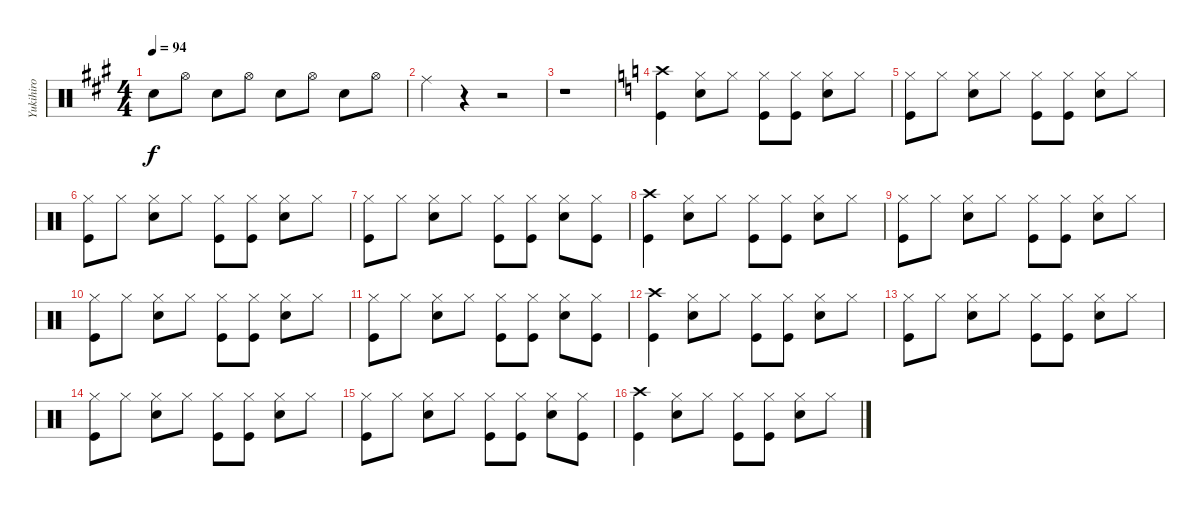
\track ("Yukihiro" "Yukihiro") {instrument percussion}
\staff {score}
\articulation defaults
\ts (4 4)
\tempo 94
\clef neutral
\ks a "Snare (hit) 2".8{dy f} "Hi-Hat (open)".8 "Snare (hit) 2".8 "Hi-Hat (open)".8 "Snare (hit) 2".8 "Hi-Hat (open)".8 "Snare (hit) 2".8 "Hi-Hat (open)".8
|
"Ride (middle)".4 r.4 r.2 |
r.1 |
\ks c
("Crash high (hit)" "Kick (hit)").4 ("Hi-Hat (closed)" "Snare (hit) 2").8 "Hi-Hat (closed)".8 ("Hi-Hat (closed)" "Kick (hit)").8 ("Hi-Hat (closed)" "Kick (hit)").8 ("Hi-Hat (closed)" "Snare (hit) 2").8 "Hi-Hat (closed)".8 |
("Hi-Hat (closed)" "Kick (hit)").8 "Hi-Hat (closed)".8 ("Hi-Hat (closed)" "Snare (hit) 2").8 "Hi-Hat (closed)".8 ("Hi-Hat (closed)" "Kick (hit)").8 ("Hi-Hat (closed)" "Kick (hit)").8 ("Hi-Hat (closed)" "Snare (hit) 2").8 "Hi-Hat (closed)".8 |
("Hi-Hat (closed)" "Kick (hit)").8 "Hi-Hat (closed)".8 ("Hi-Hat (closed)" "Snare (hit) 2").8 "Hi-Hat (closed)".8 ("Hi-Hat (closed)" "Kick (hit)").8 ("Hi-Hat (closed)" "Kick (hit)").8 ("Hi-Hat (closed)" "Snare (hit) 2").8 "Hi-Hat (closed)".8 |
("Hi-Hat (closed)" "Kick (hit)").8 "Hi-Hat (closed)".8 ("Hi-Hat (closed)" "Snare (hit) 2").8 "Hi-Hat (closed)".8 ("Hi-Hat (closed)" "Kick (hit)").8 ("Hi-Hat (closed)" "Kick (hit)").8 ("Hi-Hat (closed)" "Snare (hit) 2").8 ("Hi-Hat (closed)" "Kick (hit)").8 |
("Crash high (hit)" "Kick (hit)").4 ("Hi-Hat (closed)" "Snare (hit) 2").8 "Hi-Hat (closed)".8 ("Hi-Hat (closed)" "Kick (hit)").8 ("Hi-Hat (closed)" "Kick (hit)").8 ("Hi-Hat (closed)" "Snare (hit) 2").8 "Hi-Hat (closed)".8 |
("Hi-Hat (closed)" "Kick (hit)").8 "Hi-Hat (closed)".8 ("Hi-Hat (closed)" "Snare (hit) 2").8 "Hi-Hat (closed)".8 ("Hi-Hat (closed)" "Kick (hit)").8 ("Hi-Hat (closed)" "Kick (hit)").8 ("Hi-Hat (closed)" "Snare (hit) 2").8 "Hi-Hat (closed)".8 |
("Hi-Hat (closed)" "Kick (hit)").8 "Hi-Hat (closed)".8 ("Hi-Hat (closed)" "Snare (hit) 2").8 "Hi-Hat (closed)".8 ("Hi-Hat (closed)" "Kick (hit)").8 ("Hi-Hat (closed)" "Kick (hit)").8 ("Hi-Hat (closed)" "Snare (hit) 2").8 "Hi-Hat (closed)".8 |
("Hi-Hat (closed)" "Kick (hit)").8 "Hi-Hat (closed)".8 ("Hi-Hat (closed)" "Snare (hit) 2").8 "Hi-Hat (closed)".8 ("Hi-Hat (closed)" "Kick (hit)").8 ("Hi-Hat (closed)" "Kick (hit)").8 ("Hi-Hat (closed)" "Snare (hit) 2").8 ("Hi-Hat (closed)" "Kick (hit)").8 |
("Crash high (hit)" "Kick (hit)").4 ("Hi-Hat (closed)" "Snare (hit) 2").8 "Hi-Hat (closed)".8 ("Hi-Hat (closed)" "Kick (hit)").8 ("Hi-Hat (closed)" "Kick (hit)").8 ("Hi-Hat (closed)" "Snare (hit) 2").8 "Hi-Hat (closed)".8 |
("Hi-Hat (closed)" "Kick (hit)").8 "Hi-Hat (closed)".8 ("Hi-Hat (closed)" "Snare (hit) 2").8 "Hi-Hat (closed)".8 ("Hi-Hat (closed)" "Kick (hit)").8 ("Hi-Hat (closed)" "Kick (hit)").8 ("Hi-Hat (closed)" "Snare (hit) 2").8 "Hi-Hat (closed)".8 |
("Hi-Hat (closed)" "Kick (hit)").8 "Hi-Hat (closed)".8 ("Hi-Hat (closed)" "Snare (hit) 2").8 "Hi-Hat (closed)".8 ("Hi-Hat (closed)" "Kick (hit)").8 ("Hi-Hat (closed)" "Kick (hit)").8 ("Hi-Hat (closed)" "Snare (hit) 2").8 "Hi-Hat (closed)".8 |
("Hi-Hat (closed)" "Kick (hit)").8 "Hi-Hat (closed)".8 ("Hi-Hat (closed)" "Snare (hit) 2").8 "Hi-Hat (closed)".8 ("Hi-Hat (closed)" "Kick (hit)").8 ("Hi-Hat (closed)" "Kick (hit)").8 ("Hi-Hat (closed)" "Snare (hit) 2").8 ("Hi-Hat (closed)" "Kick (hit)").8 |
("Crash high (hit)" "Kick (hit)").4 ("Hi-Hat (closed)" "Snare (hit) 2").8 "Hi-Hat (closed)".8 ("Hi-Hat (closed)" "Kick (hit)").8 ("Hi-Hat (closed)" "Kick (hit)").8 ("Hi-Hat (closed)" "Snare (hit) 2").8 "Hi-Hat (closed)".8
